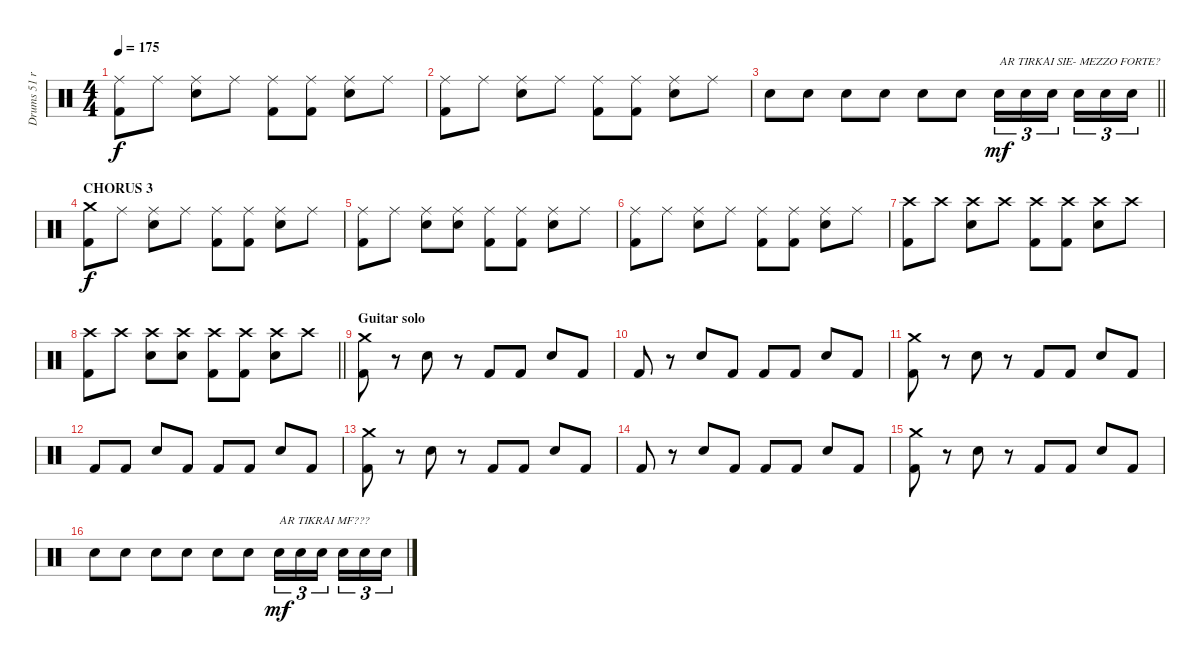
\track ("Drums 51 ride" "Drums 51 r") {instrument percussion}
\staff {score}
\articulation defaults
\ts (4 4)
\tempo 175
\clef neutral
\ks c
("Ride (middle)" "Kick (hit) 2").8{dy f} "Ride (middle)".8 ("Ride (middle)" "Snare (hit) 2").8 "Ride (middle)".8 ("Ride (middle)" "Kick (hit) 2").8 ("Ride (middle)" "Kick (hit) 2").8 ("Ride (middle)" "Snare (hit) 2").8 "Ride (middle)".8 |
("Ride (middle)" "Kick (hit) 2").8 "Ride (middle)".8 ("Ride (middle)" "Snare (hit) 2").8 "Ride (middle)".8 ("Ride (middle)" "Kick (hit) 2").8 ("Ride (middle)" "Kick (hit) 2").8 ("Ride (middle)" "Snare (hit) 2").8 "Ride (middle)".8 |
\barLineRight lightlight "Snare (hit) 2".8 "Snare (hit) 2".8 "Snare (hit) 2".8 "Snare (hit) 2".8 "Snare (hit) 2".8 "Snare (hit) 2".8 "Snare (hit) 2".16{tu (3 2) txt "AR TIRKAI SIE- MEZZO FORTE?" dy mf} "Snare (hit) 2".16{tu (3 2)} "Snare (hit) 2".16{tu (3 2) beam splitsecondary} "Snare (hit) 2".16{tu (3 2)} "Snare (hit) 2".16{tu (3 2)} "Snare (hit) 2".16{tu (3 2)}
|
\section ("" "CHORUS 3")
("Crash medium (hit)" "Kick (hit) 2").8{dy f} "Ride (middle)".8 ("Ride (middle)" "Snare (hit) 2").8 "Ride (middle)".8 ("Ride (middle)" "Kick (hit) 2").8 ("Ride (middle)" "Kick (hit) 2").8 ("Ride (middle)" "Snare (hit) 2").8 "Ride (middle)".8 |
("Ride (middle)" "Kick (hit) 2").8 "Ride (middle)".8 ("Ride (middle)" "Snare (hit) 2").8 ("Ride (middle)" "Snare (hit) 2").8 ("Ride (middle)" "Kick (hit) 2").8 ("Ride (middle)" "Kick (hit) 2").8 ("Ride (middle)" "Snare (hit) 2").8 "Ride (middle)".8 |
("Ride (middle)" "Kick (hit) 2").8 "Ride (middle)".8 ("Ride (middle)" "Snare (hit) 2").8 "Ride (middle)".8 ("Ride (middle)" "Kick (hit) 2").8 ("Ride (middle)" "Kick (hit) 2").8 ("Ride (middle)" "Snare (hit) 2").8 "Ride (middle)".8 |
("Crash high (hit)" "Kick (hit) 2").8 "Crash high (hit)".8 ("Crash high (hit)" "Snare (hit) 2").8 "Crash high (hit)".8 ("Crash high (hit)" "Kick (hit) 2").8 ("Crash high (hit)" "Kick (hit) 2").8 ("Crash high (hit)" "Snare (hit) 2").8 "Crash high (hit)".8 |
\barLineRight lightlight
("Crash high (hit)" "Kick (hit) 2").8 "Crash high (hit)".8 ("Crash high (hit)" "Snare (hit) 2").8 ("Crash high (hit)" "Snare (hit) 2").8 ("Crash high (hit)" "Kick (hit) 2").8 ("Crash high (hit)" "Kick (hit) 2").8 ("Crash high (hit)" "Snare (hit) 2").8 "Crash high (hit)".8 |
\section ("" "Guitar solo")
("Crash medium (hit)" "Kick (hit) 2").8 r.8 "Snare (hit) 2".8 r.8 "Kick (hit) 2".8 "Kick (hit) 2".8 "Snare (hit) 2".8 "Kick (hit) 2".8 |
"Kick (hit) 2".8 r.8 "Snare (hit) 2".8 "Kick (hit) 2".8 "Kick (hit) 2".8 "Kick (hit) 2".8 "Snare (hit) 2".8 "Kick (hit) 2".8 |
("Crash medium (hit)" "Kick (hit) 2").8 r.8 "Snare (hit) 2".8 r.8 "Kick (hit) 2".8 "Kick (hit) 2".8 "Snare (hit) 2".8 "Kick (hit) 2".8 |
"Kick (hit) 2".8 "Kick (hit) 2".8 "Snare (hit) 2".8 "Kick (hit) 2".8 "Kick (hit) 2".8 "Kick (hit) 2".8 "Snare (hit) 2".8 "Kick (hit) 2".8 |
("Crash medium (hit)" "Kick (hit) 2").8 r.8 "Snare (hit) 2".8 r.8 "Kick (hit) 2".8 "Kick (hit) 2".8 "Snare (hit) 2".8 "Kick (hit) 2".8 |
"Kick (hit) 2".8 r.8 "Snare (hit) 2".8 "Kick (hit) 2".8 "Kick (hit) 2".8 "Kick (hit) 2".8 "Snare (hit) 2".8 "Kick (hit) 2".8 |
("Crash medium (hit)" "Kick (hit) 2").8 r.8 "Snare (hit) 2".8 r.8 "Kick (hit) 2".8 "Kick (hit) 2".8 "Snare (hit) 2".8 "Kick (hit) 2".8 |
"Snare (hit) 2".8 "Snare (hit) 2".8 "Snare (hit) 2".8 "Snare (hit) 2".8 "Snare (hit) 2".8 "Snare (hit) 2".8 "Snare (hit) 2".16{tu (3 2) txt "AR TIKRAI MF???" dy mf} "Snare (hit) 2".16{tu (3 2)} "Snare (hit) 2".16{tu (3 2) beam splitsecondary} "Snare (hit) 2".16{tu (3 2)} "Snare (hit) 2".16{tu (3 2)} "Snare (hit) 2".16{tu (3 2)}
